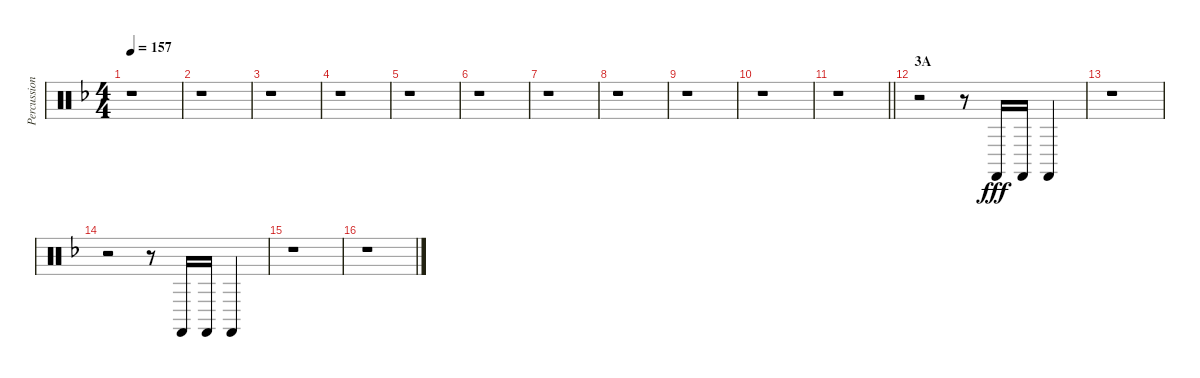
\track ("Percussion" "Percussion") {instrument percussion}
\staff {score}
\articulation defaults
\ts (4 4)
\tempo 157
\clef neutral
\ks f
r.1{dy fff} |
r.1 |
r.1 |
r.1 |
r.1 |
r.1 |
r.1 |
r.1 |
r.1 |
r.1 |
\barLineRight lightlight
r.1 |
\section ("" "3A")
r.2 r.8 "Castanets (hit)".16 "Castanets (hit)".16 "Castanets (hit)".4 |
r.1 |
r.2 r.8 "Castanets (hit)".16 "Castanets (hit)".16 "Castanets (hit)".4 |
r.1 |
r.1
